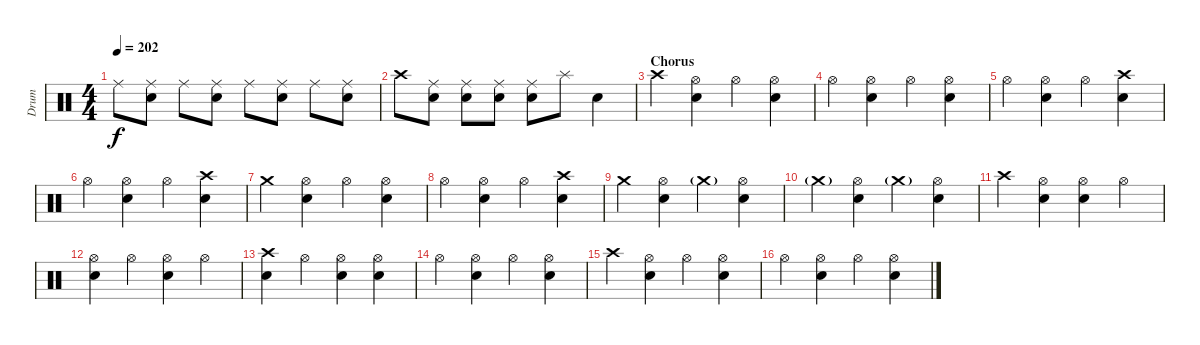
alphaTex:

\track ("Drum" "Drum") {instrument percussion}
\staff {score}
\articulation defaults
\ts (4 4)
\tempo 202
\clef neutral
\ks c "Ride (middle)".8{dy f}
("Ride (middle)" "Electric Snare (hit)").8 "Ride (middle)".8 ("Ride (middle)" "Electric Snare (hit)").8 "Ride (middle)".8 ("Ride (middle)" "Electric Snare (hit)").8 "Ride (middle)".8 ("Ride (middle)" "Electric Snare (hit)").8 |
"Crash high (hit)".8 ("Ride (middle)" "Electric Snare (hit)").8 ("Ride (middle)" "Electric Snare (hit)").8 ("Ride (middle)" "Electric Snare (hit)").8 ("Ride (middle)" "Electric Snare (hit)").8 "Splash (hit)".8 "Electric Snare (hit)".4 |
\section ("" "Chorus")
"Crash high (hit)".4 ("Hi-Hat (open)" "Electric Snare (hit)").4 "Hi-Hat (open)".4 ("Hi-Hat (open)" "Electric Snare (hit)").4 |
"Hi-Hat (open)".4 ("Hi-Hat (open)" "Electric Snare (hit)").4 "Hi-Hat (open)".4 ("Hi-Hat (open)" "Electric Snare (hit)").4 |
"Hi-Hat (open)".4 ("Hi-Hat (open)" "Electric Snare (hit)").4 "Hi-Hat (open)".4 ("Crash high (hit)" "Electric Snare (hit)").4 |
"Hi-Hat (open)".4 ("Hi-Hat (open)" "Electric Snare (hit)").4 "Hi-Hat (open)".4 ("Crash high (hit)" "Electric Snare (hit)").4 |
"Crash medium (hit)".4 ("Hi-Hat (open)" "Electric Snare (hit)").4 "Hi-Hat (open)".4 ("Hi-Hat (open)" "Electric Snare (hit)").4 |
"Hi-Hat (open)".4 ("Hi-Hat (open)" "Electric Snare (hit)").4 "Hi-Hat (open)".4 ("Crash high (hit)" "Electric Snare (hit)").4 |
"Crash medium (hit)".4 ("Hi-Hat (open)" "Electric Snare (hit)").4 "Crash medium (hit)"{g}.4 ("Hi-Hat (open)" "Electric Snare (hit)").4 |
"Crash medium (hit)"{g}.4 ("Hi-Hat (open)" "Electric Snare (hit)").4 "Crash medium (hit)"{g}.4 ("Hi-Hat (open)" "Electric Snare (hit)").4 |
"Crash high (hit)".4 ("Hi-Hat (open)" "Electric Snare (hit)").4 ("Hi-Hat (open)" "Electric Snare (hit)").4 "Hi-Hat (open)".4 |
("Hi-Hat (open)" "Electric Snare (hit)").4 "Hi-Hat (open)".4 ("Hi-Hat (open)" "Electric Snare (hit)").4 "Hi-Hat (open)".4 |
("Crash high (hit)" "Electric Snare (hit)").4 "Hi-Hat (open)".4 ("Hi-Hat (open)" "Electric Snare (hit)").4 ("Hi-Hat (open)" "Electric Snare (hit)").4 |
"Hi-Hat (open)".4 ("Hi-Hat (open)" "Electric Snare (hit)").4 "Hi-Hat (open)".4 ("Hi-Hat (open)" "Electric Snare (hit)").4 |
"Crash high (hit)".4 ("Hi-Hat (open)" "Electric Snare (hit)").4 "Hi-Hat (open)".4 ("Hi-Hat (open)" "Electric Snare (hit)").4 |
"Hi-Hat (open)".4 ("Hi-Hat (open)" "Electric Snare (hit)").4 "Hi-Hat (open)".4 ("Hi-Hat (open)" "Electric Snare (hit)").4
